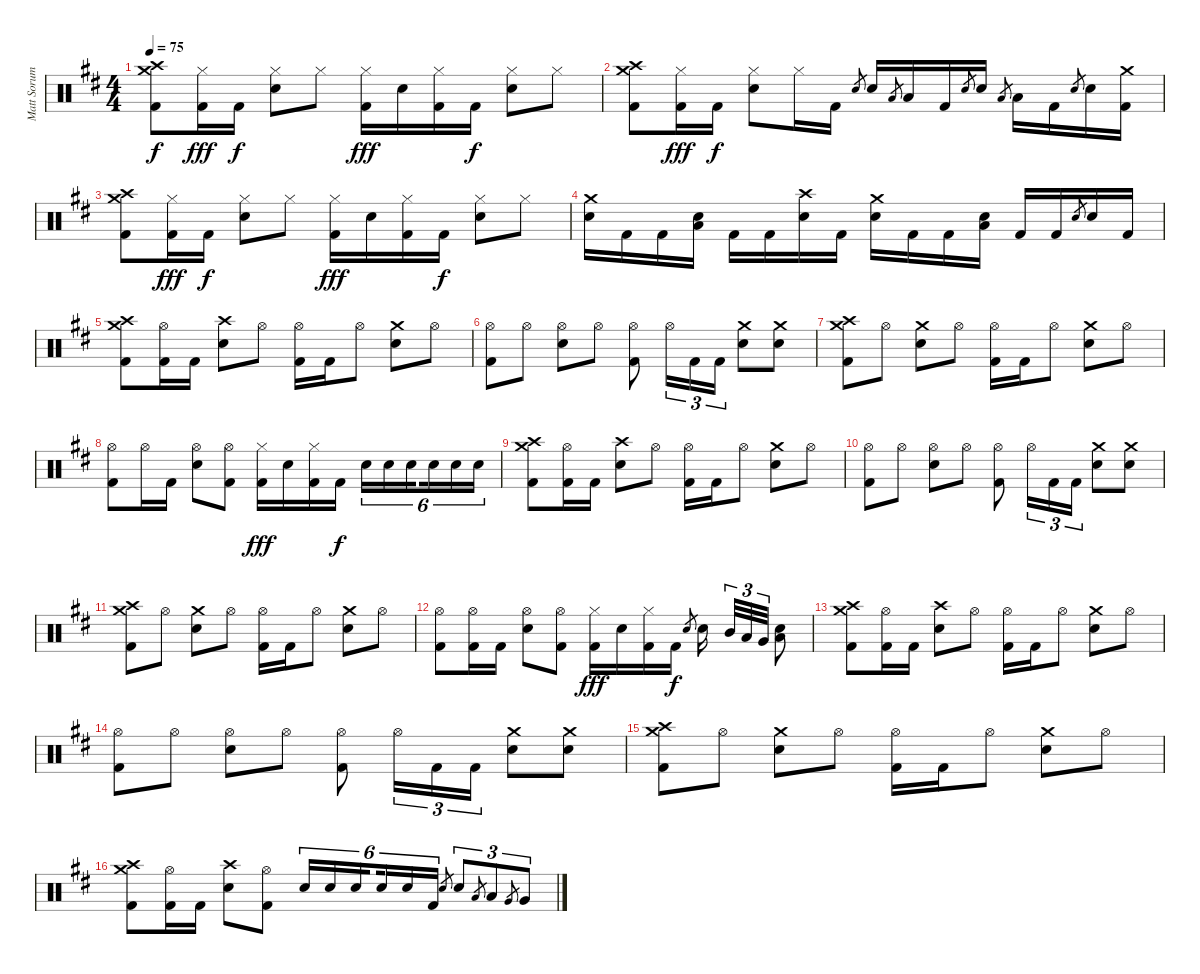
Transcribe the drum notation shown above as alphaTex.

\track ("Matt Sorum- Drums" "Matt Sorum") {instrument percussion}
\staff {score}
\articulation defaults
\ts (4 4)
\tempo 75
\clef neutral
\ks d
("Crash medium (hit)" "Crash high (hit)" "Kick (hit) 2").8{dy f} ("Hi-Hat (closed)" "Kick (hit) 2").16{dy fff} "Kick (hit) 2".16{dy f} ("Hi-Hat (closed)" "Snare (hit) 2").8 "Hi-Hat (closed)".8 ("Hi-Hat (closed)" "Kick (hit) 2").16{dy fff} "Snare (hit) 2".16 ("Hi-Hat (closed)" "Kick (hit) 2").16 "Kick (hit) 2".16{dy f} ("Hi-Hat (closed)" "Snare (hit) 2").8 "Hi-Hat (closed)".8 |
("Crash medium (hit)" "Crash high (hit)" "Kick (hit) 2").8 ("Hi-Hat (closed)" "Kick (hit) 2").16{dy fff} "Kick (hit) 2".16{dy f} ("Hi-Hat (closed)" "Snare (hit) 2").8 "Hi-Hat (closed)".16 "Kick (hit) 2".16 "Snare (hit) 2".8{gr} "Snare (hit) 2".16 "Low Tom (hit)".8{gr} "Low Tom (hit)".16 "Kick (hit) 2".16 "Snare (hit) 2".8{gr} "Snare (hit) 2".16 "Low Tom (hit)".8{gr} "Low Tom (hit)".16 "Kick (hit) 2".16 "Snare (hit) 2".8{gr} "Snare (hit) 2".16 ("Crash medium (hit)" "Kick (hit) 2").16 |
("Crash medium (hit)" "Crash high (hit)" "Kick (hit) 2").8 ("Hi-Hat (closed)" "Kick (hit) 2").16{dy fff} "Kick (hit) 2".16{dy f} ("Hi-Hat (closed)" "Snare (hit) 2").8 "Hi-Hat (closed)".8 ("Hi-Hat (closed)" "Kick (hit) 2").16{dy fff} "Snare (hit) 2".16 ("Hi-Hat (closed)" "Kick (hit) 2").16 "Kick (hit) 2".16{dy f} ("Hi-Hat (closed)" "Snare (hit) 2").8 "Hi-Hat (closed)".8 |
("Crash medium (hit)" "Snare (hit) 2").16 "Kick (hit) 2".16 "Kick (hit) 2".16 ("Low Tom (hit)" "Snare (hit) 2").16 "Kick (hit) 2".16 "Kick (hit) 2".16 ("Crash high (hit)" "Snare (hit) 2").16 "Kick (hit) 2".16 ("Crash medium (hit)" "Snare (hit) 2").16 "Kick (hit) 2".16 "Kick (hit) 2".16 ("Low Tom (hit)" "Snare (hit) 2").16 "Kick (hit) 2".16 "Kick (hit) 2".16 "Snare (hit) 2".8{gr} "Snare (hit) 2".16 "Kick (hit) 2".16 |
("Crash medium (hit)" "Crash high (hit)" "Kick (hit) 2").8 ("Hi-Hat (open)" "Kick (hit) 2").16 "Kick (hit) 2".16 ("Crash high (hit)" "Snare (hit) 2").8 "Hi-Hat (open)".8 ("Hi-Hat (open)" "Kick (hit) 2").16 "Kick (hit) 2".16 "Hi-Hat (open)".8 ("Crash medium (hit)" "Snare (hit) 2").8 "Hi-Hat (open)".8 |
("Hi-Hat (open)" "Kick (hit) 2").8 "Hi-Hat (open)".8 ("Hi-Hat (open)" "Snare (hit) 2").8 "Hi-Hat (open)".8 ("Hi-Hat (open)" "Kick (hit) 2").8 "Hi-Hat (open)".16{tu (3 2)} "Kick (hit) 2".16{tu (3 2)} "Kick (hit) 2".16{tu (3 2)} ("Crash medium (hit)" "Snare (hit) 2").8 ("Crash medium (hit)" "Snare (hit) 2").8 |
("Crash medium (hit)" "Crash high (hit)" "Kick (hit) 2").8 "Hi-Hat (open)".8 ("Crash medium (hit)" "Snare (hit) 2").8 "Hi-Hat (open)".8 ("Hi-Hat (open)" "Kick (hit) 2").16 "Kick (hit) 2".16 "Hi-Hat (open)".8 ("Crash medium (hit)" "Snare (hit) 2").8 "Hi-Hat (open)".8 |
("Hi-Hat (open)" "Kick (hit) 2").8 "Hi-Hat (open)".16 "Kick (hit) 2".16 ("Hi-Hat (open)" "Snare (hit) 2").8 ("Hi-Hat (open)" "Kick (hit) 2").8 ("Hi-Hat (closed)" "Kick (hit) 2").16{dy fff} "Snare (hit) 2".16 ("Hi-Hat (closed)" "Kick (hit) 2").16 "Kick (hit) 2".16{dy f} "Snare (hit) 2".16{tu (6 4)} "Snare (hit) 2".16{tu (6 4)} "Snare (hit) 2".16{tu (6 4) beam splitsecondary} "Snare (hit) 2".16{tu (6 4)} "Snare (hit) 2".16{tu (6 4)} "Snare (hit) 2".16{tu (6 4)} |
("Crash medium (hit)" "Crash high (hit)" "Kick (hit) 2").8 ("Hi-Hat (open)" "Kick (hit) 2").16 "Kick (hit) 2".16 ("Crash high (hit)" "Snare (hit) 2").8 "Hi-Hat (open)".8 ("Hi-Hat (open)" "Kick (hit) 2").16 "Kick (hit) 2".16 "Hi-Hat (open)".8 ("Crash medium (hit)" "Snare (hit) 2").8 "Hi-Hat (open)".8 |
("Hi-Hat (open)" "Kick (hit) 2").8 "Hi-Hat (open)".8 ("Hi-Hat (open)" "Snare (hit) 2").8 "Hi-Hat (open)".8 ("Hi-Hat (open)" "Kick (hit) 2").8 "Hi-Hat (open)".16{tu (3 2)} "Kick (hit) 2".16{tu (3 2)} "Kick (hit) 2".16{tu (3 2)} ("Crash medium (hit)" "Snare (hit) 2").8 ("Crash medium (hit)" "Snare (hit) 2").8 |
("Crash medium (hit)" "Crash high (hit)" "Kick (hit) 2").8 "Hi-Hat (open)".8 ("Crash medium (hit)" "Snare (hit) 2").8 "Hi-Hat (open)".8 ("Hi-Hat (open)" "Kick (hit) 2").16 "Kick (hit) 2".16 "Hi-Hat (open)".8 ("Crash medium (hit)" "Snare (hit) 2").8 "Hi-Hat (open)".8 |
("Hi-Hat (open)" "Kick (hit) 2").8 ("Hi-Hat (open)" "Kick (hit) 2").16 "Kick (hit) 2".16 ("Hi-Hat (open)" "Snare (hit) 2").8 ("Hi-Hat (open)" "Kick (hit) 2").8 ("Hi-Hat (closed)" "Kick (hit) 2").16{dy fff} "Snare (hit) 2".16 ("Hi-Hat (closed)" "Kick (hit) 2").16 "Kick (hit) 2".16{dy f} "Snare (hit) 2".8{gr} "Snare (hit) 2".16{beam splitsecondary} "Mid Tom (hit)".32{tu (3 2)} "Low Tom (hit)".32{tu (3 2)} "Very Low Tom (hit)".32{tu (3 2)} ("Snare (hit)" "Low Floor Tom (hit)").8 |
("Crash medium (hit)" "Crash high (hit)" "Kick (hit) 2").8 ("Hi-Hat (open)" "Kick (hit) 2").16 "Kick (hit) 2".16 ("Crash high (hit)" "Snare (hit) 2").8 "Hi-Hat (open)".8 ("Hi-Hat (open)" "Kick (hit) 2").16 "Kick (hit) 2".16 "Hi-Hat (open)".8 ("Crash medium (hit)" "Snare (hit) 2").8 "Hi-Hat (open)".8 |
("Hi-Hat (open)" "Kick (hit) 2").8 "Hi-Hat (open)".8 ("Hi-Hat (open)" "Snare (hit) 2").8 "Hi-Hat (open)".8 ("Hi-Hat (open)" "Kick (hit) 2").8 "Hi-Hat (open)".16{tu (3 2)} "Kick (hit) 2".16{tu (3 2)} "Kick (hit) 2".16{tu (3 2)} ("Crash medium (hit)" "Snare (hit) 2").8 ("Crash medium (hit)" "Snare (hit) 2").8 |
("Crash medium (hit)" "Crash high (hit)" "Kick (hit) 2").8 "Hi-Hat (open)".8 ("Crash medium (hit)" "Snare (hit) 2").8 "Hi-Hat (open)".8 ("Hi-Hat (open)" "Kick (hit) 2").16 "Kick (hit) 2".16 "Hi-Hat (open)".8 ("Crash medium (hit)" "Snare (hit) 2").8 "Hi-Hat (open)".8 |
("Crash medium (hit)" "Crash high (hit)" "Kick (hit) 2").8 ("Hi-Hat (open)" "Kick (hit) 2").16 "Kick (hit) 2".16 ("Crash high (hit)" "Snare (hit) 2").8 ("Hi-Hat (open)" "Kick (hit) 2").8 "Snare (hit) 2".16{tu (6 4)} "Snare (hit) 2".16{tu (6 4)} "Snare (hit) 2".16{tu (6 4) beam splitsecondary} "Snare (hit) 2".16{tu (6 4)} "Snare (hit) 2".16{tu (6 4)} "Kick (hit) 2".16{tu (6 4)} "Snare (hit) 2".8{gr} "Snare (hit) 2".8{tu (3 2)} "Low Tom (hit)".8{gr} "Low Tom (hit)".8{tu (3 2)} "Very Low Tom (hit)".8{gr} "Very Low Tom (hit)".8{tu (3 2)}
